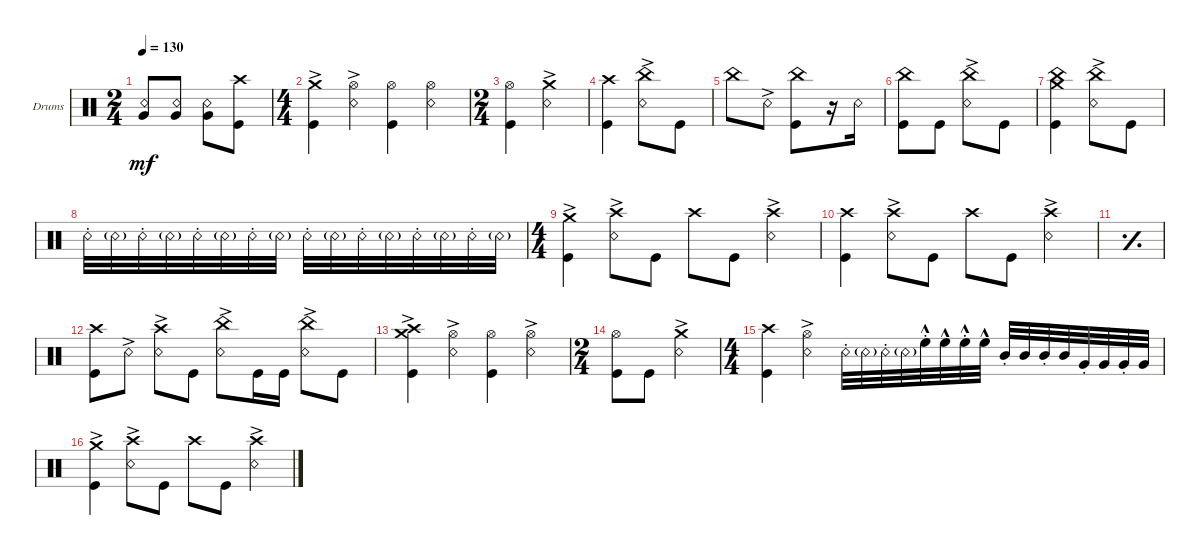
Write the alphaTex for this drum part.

\defaultSystemsLayout 4
\bracketExtendMode groupsimilarinstruments
\firstSystemTrackNameOrientation horizontal
\otherSystemsTrackNameOrientation horizontal
\track ("Drumkit" "Drums") {instrument percussion}
\staff {score}
\articulation defaults
\ts (2 4)
\tempo 130
\clef neutral
\ks c
("Snare (rim shot)" "Very Low Tom (hit)").8{dy mf} ("Snare (rim shot)" "Very Low Tom (hit)").8 ("Snare (rim shot)" "Very Low Tom (hit)").8 ("Crash high (hit)" "Kick (hit)").8 |
\ts (4 4)
("Crash medium (hit)"{ac} "Kick (hit)").4 ("Hi-Hat (open)" "Snare (rim shot)"{ac}).4 ("Hi-Hat (open)" "Kick (hit)").4 ("Hi-Hat (open)" "Snare (rim shot)").4 |
\ts (2 4)
("Hi-Hat (open)" "Kick (hit)").4 ("Snare (rim shot)" "Crash medium (hit)"{ac}).4 |
("Kick (hit)" "Crash high (hit)").4 ("China (hit)" "Snare (rim shot)"{ac}).8 "Kick (hit)".8 |
"China (hit)".8 "Snare (rim shot)"{ac}.8 ("China (hit)" "Kick (hit)").8 r.16 "Snare (rim shot)".16 |
("China (hit)" "Kick (hit)").8 "Kick (hit)".8 ("China (hit)" "Snare (rim shot)"{ac}).8 "Kick (hit)".8 |
("Crash medium (hit)" "China (hit)" "Kick (hit)").4 ("China (hit)" "Snare (rim shot)"{ac}).8 "Kick (hit)".8 |
"Snare (rim shot)"{st}.32 "Snare (rim shot)"{g}.32 "Snare (rim shot)"{st}.32 "Snare (rim shot)"{g}.32 "Snare (rim shot)"{st}.32 "Snare (rim shot)"{g}.32 "Snare (rim shot)"{st}.32 "Snare (rim shot)"{g}.32 "Snare (rim shot)"{st}.32 "Snare (rim shot)"{g}.32 "Snare (rim shot)"{st}.32 "Snare (rim shot)"{g}.32 "Snare (rim shot)"{st}.32 "Snare (rim shot)"{g}.32 "Snare (rim shot)"{st}.32 "Snare (rim shot)"{g}.32 |
\ts (4 4)
("Crash medium (hit)"{ac} "Kick (hit)").4 ("Crash high (hit)" "Snare (rim shot)"{ac}).8 "Kick (hit)".8 "Crash high (hit)".8 "Kick (hit)".8 ("Crash high (hit)" "Snare (rim shot)"{ac}).4 |
("Crash high (hit)" "Kick (hit)").4 ("Crash high (hit)" "Snare (rim shot)"{ac}).8 "Kick (hit)".8 "Crash high (hit)".8 "Kick (hit)".8 ("Crash high (hit)" "Snare (rim shot)"{ac}).4 |
\simile simple
|
\simile none
("Crash high (hit)" "Kick (hit)").8 "Snare (rim shot)"{ac}.8 ("Crash high (hit)" "Snare (rim shot)"{ac}).8 "Kick (hit)".8 ("China (hit)" "Snare (rim shot)"{ac}).8 "Kick (hit)".16 "Kick (hit)".16 ("Snare (rim shot)"{ac} "China (hit)").8 "Kick (hit)".8 |
("Crash medium (hit)"{ac} "Crash high (hit)" "Kick (hit)").4 ("Hi-Hat (open)" "Snare (rim shot)"{ac}).4 ("Hi-Hat (open)" "Kick (hit)").4 ("Hi-Hat (open)" "Snare (rim shot)"{ac}).4 |
\ts (2 4)
("Hi-Hat (open)" "Kick (hit)").8 "Kick (hit)".8 ("Snare (rim shot)" "Crash medium (hit)"{ac}).4 |
\ts (4 4)
("Crash high (hit)" "Kick (hit)").4 ("Hi-Hat (open)" "Snare (rim shot)"{ac}).4 "Snare (rim shot)"{st}.32 "Snare (rim shot)"{g}.32 "Snare (rim shot)"{st}.32 "Snare (rim shot)"{g}.32 "High Floor Tom (hit)"{hac st}.32 "High Floor Tom (hit)"{hac}.32 "High Floor Tom (hit)"{hac st}.32 "High Floor Tom (hit)"{hac}.32 "Mid Tom (hit)"{st}.32 "Mid Tom (hit)".32 "Mid Tom (hit)"{st}.32 "Mid Tom (hit)".32 "Very Low Tom (hit)"{st}.32 "Very Low Tom (hit)".32 "Very Low Tom (hit)"{st}.32 "Very Low Tom (hit)".32 |
("Crash medium (hit)"{ac} "Kick (hit)").4 ("Crash high (hit)" "Snare (rim shot)"{ac}).8 "Kick (hit)".8 "Crash high (hit)".8 "Kick (hit)".8 ("Crash high (hit)" "Snare (rim shot)"{ac}).4
